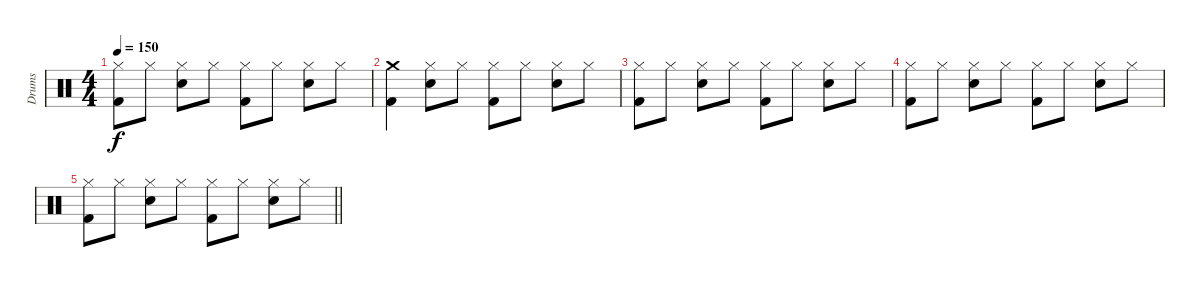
\track ("Drums" "Drums") {instrument percussion}
\staff {score}
\articulation defaults
\ts (4 4)
\tempo 150
\clef neutral
\ks c
("Hi-Hat (closed)" "Kick (hit) 2").8{dy f} "Hi-Hat (closed)".8 ("Hi-Hat (closed)" "Electric Snare (hit)").8 "Hi-Hat (closed)".8 ("Hi-Hat (closed)" "Kick (hit) 2").8 "Hi-Hat (closed)".8 ("Hi-Hat (closed)" "Electric Snare (hit)").8 "Hi-Hat (closed)".8 |
("Crash medium (hit)" "Kick (hit) 2").4 ("Hi-Hat (closed)" "Electric Snare (hit)").8 "Hi-Hat (closed)".8 ("Hi-Hat (closed)" "Kick (hit) 2").8 "Hi-Hat (closed)".8 ("Hi-Hat (closed)" "Electric Snare (hit)").8 "Hi-Hat (closed)".8 |
("Hi-Hat (closed)" "Kick (hit) 2").8 "Hi-Hat (closed)".8 ("Hi-Hat (closed)" "Electric Snare (hit)").8 "Hi-Hat (closed)".8 ("Hi-Hat (closed)" "Kick (hit) 2").8 "Hi-Hat (closed)".8 ("Hi-Hat (closed)" "Electric Snare (hit)").8 "Hi-Hat (closed)".8 |
("Hi-Hat (closed)" "Kick (hit) 2").8 "Hi-Hat (closed)".8 ("Hi-Hat (closed)" "Electric Snare (hit)").8 "Hi-Hat (closed)".8 ("Hi-Hat (closed)" "Kick (hit) 2").8 "Hi-Hat (closed)".8 ("Hi-Hat (closed)" "Electric Snare (hit)").8 "Hi-Hat (closed)".8 |
\barLineRight lightlight
("Hi-Hat (closed)" "Kick (hit) 2").8 "Hi-Hat (closed)".8 ("Hi-Hat (closed)" "Electric Snare (hit)").8 "Hi-Hat (closed)".8 ("Hi-Hat (closed)" "Kick (hit) 2").8 "Hi-Hat (closed)".8 ("Hi-Hat (closed)" "Electric Snare (hit)").8 "Hi-Hat (closed)".8
